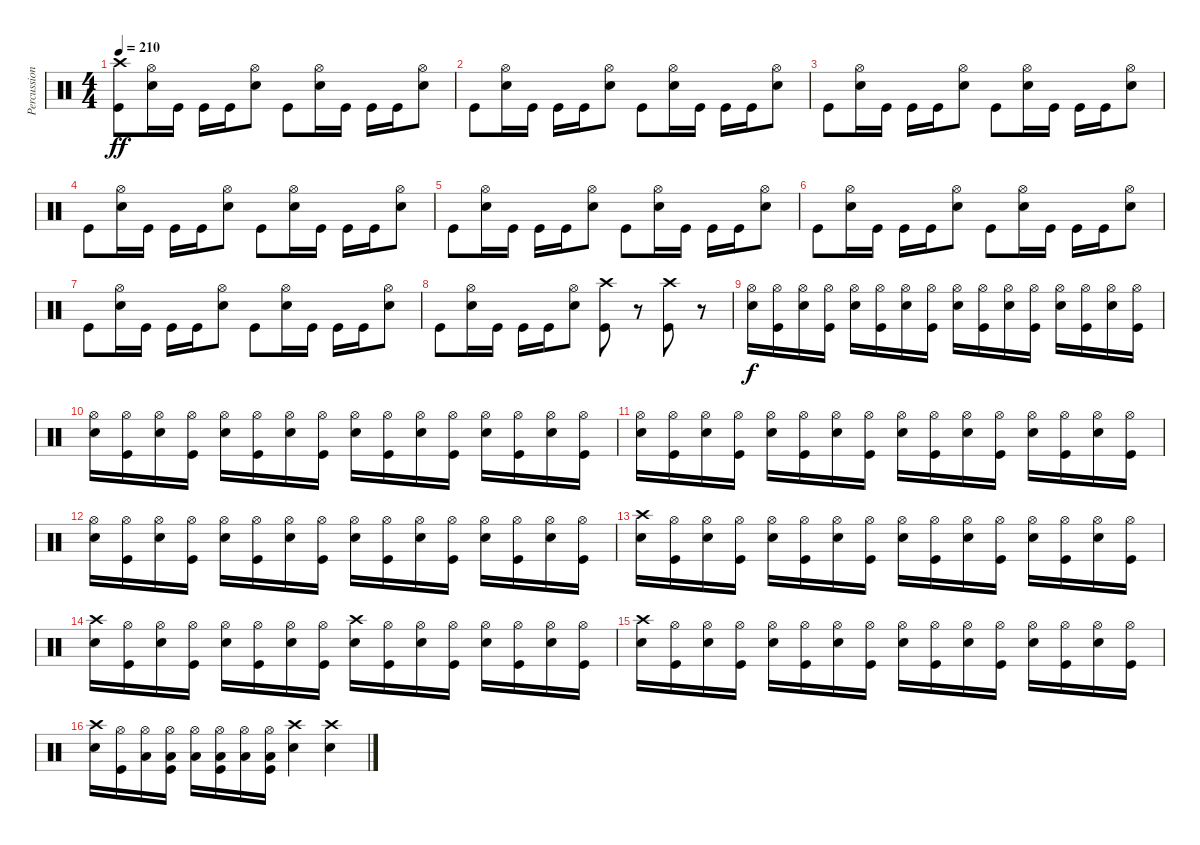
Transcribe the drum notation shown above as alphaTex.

\track ("Percussion" "Percussion") {instrument percussion}
\staff {score}
\articulation defaults
\ts (4 4)
\tempo 210
\clef neutral
\ks c
("Crash high (hit)" "Kick (hit)").8{dy ff} ("Hi-Hat (open)" "Snare (hit) 2").16 "Kick (hit)".16 "Kick (hit)".16 "Kick (hit)".16 ("Hi-Hat (open)" "Snare (hit) 2").8 "Kick (hit)".8 ("Hi-Hat (open)" "Snare (hit) 2").16 "Kick (hit)".16 "Kick (hit)".16 "Kick (hit)".16 ("Hi-Hat (open)" "Snare (hit) 2").8 |
"Kick (hit)".8 ("Hi-Hat (open)" "Snare (hit) 2").16 "Kick (hit)".16 "Kick (hit)".16 "Kick (hit)".16 ("Hi-Hat (open)" "Snare (hit) 2").8 "Kick (hit)".8 ("Hi-Hat (open)" "Snare (hit) 2").16 "Kick (hit)".16 "Kick (hit)".16 "Kick (hit)".16 ("Hi-Hat (open)" "Snare (hit) 2").8 |
"Kick (hit)".8 ("Hi-Hat (open)" "Snare (hit) 2").16 "Kick (hit)".16 "Kick (hit)".16 "Kick (hit)".16 ("Hi-Hat (open)" "Snare (hit) 2").8 "Kick (hit)".8 ("Hi-Hat (open)" "Snare (hit) 2").16 "Kick (hit)".16 "Kick (hit)".16 "Kick (hit)".16 ("Hi-Hat (open)" "Snare (hit) 2").8 |
"Kick (hit)".8 ("Hi-Hat (open)" "Snare (hit) 2").16 "Kick (hit)".16 "Kick (hit)".16 "Kick (hit)".16 ("Hi-Hat (open)" "Snare (hit) 2").8 "Kick (hit)".8 ("Hi-Hat (open)" "Snare (hit) 2").16 "Kick (hit)".16 "Kick (hit)".16 "Kick (hit)".16 ("Hi-Hat (open)" "Snare (hit) 2").8 |
"Kick (hit)".8 ("Hi-Hat (open)" "Snare (hit) 2").16 "Kick (hit)".16 "Kick (hit)".16 "Kick (hit)".16 ("Hi-Hat (open)" "Snare (hit) 2").8 "Kick (hit)".8 ("Hi-Hat (open)" "Snare (hit) 2").16 "Kick (hit)".16 "Kick (hit)".16 "Kick (hit)".16 ("Hi-Hat (open)" "Snare (hit) 2").8 |
"Kick (hit)".8 ("Hi-Hat (open)" "Snare (hit) 2").16 "Kick (hit)".16 "Kick (hit)".16 "Kick (hit)".16 ("Hi-Hat (open)" "Snare (hit) 2").8 "Kick (hit)".8 ("Hi-Hat (open)" "Snare (hit) 2").16 "Kick (hit)".16 "Kick (hit)".16 "Kick (hit)".16 ("Hi-Hat (open)" "Snare (hit) 2").8 |
"Kick (hit)".8 ("Hi-Hat (open)" "Snare (hit) 2").16 "Kick (hit)".16 "Kick (hit)".16 "Kick (hit)".16 ("Hi-Hat (open)" "Snare (hit) 2").8 "Kick (hit)".8 ("Hi-Hat (open)" "Snare (hit) 2").16 "Kick (hit)".16 "Kick (hit)".16 "Kick (hit)".16 ("Hi-Hat (open)" "Snare (hit) 2").8 |
"Kick (hit)".8 ("Hi-Hat (open)" "Snare (hit) 2").16 "Kick (hit)".16 "Kick (hit)".16 "Kick (hit)".16 ("Hi-Hat (open)" "Snare (hit) 2").8 ("Kick (hit)" "Crash high (hit)").8 r.8 ("Kick (hit)" "Crash high (hit)").8 r.8 |
("Hi-Hat (open)" "Snare (hit) 2").16{dy f} ("Hi-Hat (open)" "Kick (hit)").16 ("Hi-Hat (open)" "Snare (hit) 2").16 ("Hi-Hat (open)" "Kick (hit)").16 ("Hi-Hat (open)" "Snare (hit) 2").16 ("Hi-Hat (open)" "Kick (hit)").16 ("Hi-Hat (open)" "Snare (hit) 2").16 ("Hi-Hat (open)" "Kick (hit)").16 ("Hi-Hat (open)" "Snare (hit) 2").16 ("Hi-Hat (open)" "Kick (hit)").16 ("Hi-Hat (open)" "Snare (hit) 2").16 ("Hi-Hat (open)" "Kick (hit)").16 ("Hi-Hat (open)" "Snare (hit) 2").16 ("Hi-Hat (open)" "Kick (hit)").16 ("Hi-Hat (open)" "Snare (hit) 2").16 ("Hi-Hat (open)" "Kick (hit)").16 |
("Hi-Hat (open)" "Snare (hit) 2").16 ("Hi-Hat (open)" "Kick (hit)").16 ("Hi-Hat (open)" "Snare (hit) 2").16 ("Hi-Hat (open)" "Kick (hit)").16 ("Hi-Hat (open)" "Snare (hit) 2").16 ("Hi-Hat (open)" "Kick (hit)").16 ("Hi-Hat (open)" "Snare (hit) 2").16 ("Hi-Hat (open)" "Kick (hit)").16 ("Hi-Hat (open)" "Snare (hit) 2").16 ("Hi-Hat (open)" "Kick (hit)").16 ("Hi-Hat (open)" "Snare (hit) 2").16 ("Hi-Hat (open)" "Kick (hit)").16 ("Hi-Hat (open)" "Snare (hit) 2").16 ("Hi-Hat (open)" "Kick (hit)").16 ("Hi-Hat (open)" "Snare (hit) 2").16 ("Hi-Hat (open)" "Kick (hit)").16 |
("Hi-Hat (open)" "Snare (hit) 2").16 ("Hi-Hat (open)" "Kick (hit)").16 ("Hi-Hat (open)" "Snare (hit) 2").16 ("Hi-Hat (open)" "Kick (hit)").16 ("Hi-Hat (open)" "Snare (hit) 2").16 ("Hi-Hat (open)" "Kick (hit)").16 ("Hi-Hat (open)" "Snare (hit) 2").16 ("Hi-Hat (open)" "Kick (hit)").16 ("Hi-Hat (open)" "Snare (hit) 2").16 ("Hi-Hat (open)" "Kick (hit)").16 ("Hi-Hat (open)" "Snare (hit) 2").16 ("Hi-Hat (open)" "Kick (hit)").16 ("Hi-Hat (open)" "Snare (hit) 2").16 ("Hi-Hat (open)" "Kick (hit)").16 ("Hi-Hat (open)" "Snare (hit) 2").16 ("Hi-Hat (open)" "Kick (hit)").16 |
("Hi-Hat (open)" "Snare (hit) 2").16 ("Hi-Hat (open)" "Kick (hit)").16 ("Hi-Hat (open)" "Snare (hit) 2").16 ("Hi-Hat (open)" "Kick (hit)").16 ("Hi-Hat (open)" "Snare (hit) 2").16 ("Hi-Hat (open)" "Kick (hit)").16 ("Hi-Hat (open)" "Snare (hit) 2").16 ("Hi-Hat (open)" "Kick (hit)").16 ("Hi-Hat (open)" "Snare (hit) 2").16 ("Hi-Hat (open)" "Kick (hit)").16 ("Hi-Hat (open)" "Snare (hit) 2").16 ("Hi-Hat (open)" "Kick (hit)").16 ("Hi-Hat (open)" "Snare (hit) 2").16 ("Hi-Hat (open)" "Kick (hit)").16 ("Hi-Hat (open)" "Snare (hit) 2").16 ("Hi-Hat (open)" "Kick (hit)").16 |
("Crash high (hit)" "Snare (hit) 2").16 ("Hi-Hat (open)" "Kick (hit)").16 ("Hi-Hat (open)" "Snare (hit) 2").16 ("Hi-Hat (open)" "Kick (hit)").16 ("Hi-Hat (open)" "Snare (hit) 2").16 ("Hi-Hat (open)" "Kick (hit)").16 ("Hi-Hat (open)" "Snare (hit) 2").16 ("Hi-Hat (open)" "Kick (hit)").16 ("Hi-Hat (open)" "Snare (hit) 2").16 ("Hi-Hat (open)" "Kick (hit)").16 ("Hi-Hat (open)" "Snare (hit) 2").16 ("Hi-Hat (open)" "Kick (hit)").16 ("Hi-Hat (open)" "Snare (hit) 2").16 ("Hi-Hat (open)" "Kick (hit)").16 ("Hi-Hat (open)" "Snare (hit) 2").16 ("Hi-Hat (open)" "Kick (hit)").16 |
("Crash high (hit)" "Snare (hit) 2").16 ("Hi-Hat (open)" "Kick (hit)").16 ("Hi-Hat (open)" "Snare (hit) 2").16 ("Hi-Hat (open)" "Kick (hit)").16 ("Hi-Hat (open)" "Snare (hit) 2").16 ("Hi-Hat (open)" "Kick (hit)").16 ("Hi-Hat (open)" "Snare (hit) 2").16 ("Hi-Hat (open)" "Kick (hit)").16 ("Crash high (hit)" "Snare (hit) 2").16 ("Hi-Hat (open)" "Kick (hit)").16 ("Hi-Hat (open)" "Snare (hit) 2").16 ("Hi-Hat (open)" "Kick (hit)").16 ("Hi-Hat (open)" "Snare (hit) 2").16 ("Hi-Hat (open)" "Kick (hit)").16 ("Hi-Hat (open)" "Snare (hit) 2").16 ("Hi-Hat (open)" "Kick (hit)").16 |
("Crash high (hit)" "Snare (hit) 2").16 ("Hi-Hat (open)" "Kick (hit)").16 ("Hi-Hat (open)" "Snare (hit) 2").16 ("Hi-Hat (open)" "Kick (hit)").16 ("Hi-Hat (open)" "Snare (hit) 2").16 ("Hi-Hat (open)" "Kick (hit)").16 ("Hi-Hat (open)" "Snare (hit) 2").16 ("Hi-Hat (open)" "Kick (hit)").16 ("Hi-Hat (open)" "Snare (hit) 2").16 ("Hi-Hat (open)" "Kick (hit)").16 ("Hi-Hat (open)" "Snare (hit) 2").16 ("Hi-Hat (open)" "Kick (hit)").16 ("Hi-Hat (open)" "Snare (hit) 2").16 ("Hi-Hat (open)" "Kick (hit)").16 ("Hi-Hat (open)" "Snare (hit) 2").16 ("Hi-Hat (open)" "Kick (hit)").16 |
("Crash high (hit)" "Snare (hit) 2").16 ("Hi-Hat (open)" "Kick (hit)").16 ("Low Floor Tom (hit)" "Hi-Hat (open)").16 ("Low Floor Tom (hit)" "Hi-Hat (open)" "Kick (hit)").16 ("Low Floor Tom (hit)" "Hi-Hat (open)").16 ("Low Floor Tom (hit)" "Hi-Hat (open)" "Kick (hit)").16 ("Low Floor Tom (hit)" "Hi-Hat (open)").16 ("Low Floor Tom (hit)" "Hi-Hat (open)" "Kick (hit)").16 ("Snare (hit) 2" "Crash high (hit)").4 ("Snare (hit) 2" "Crash high (hit)").4
